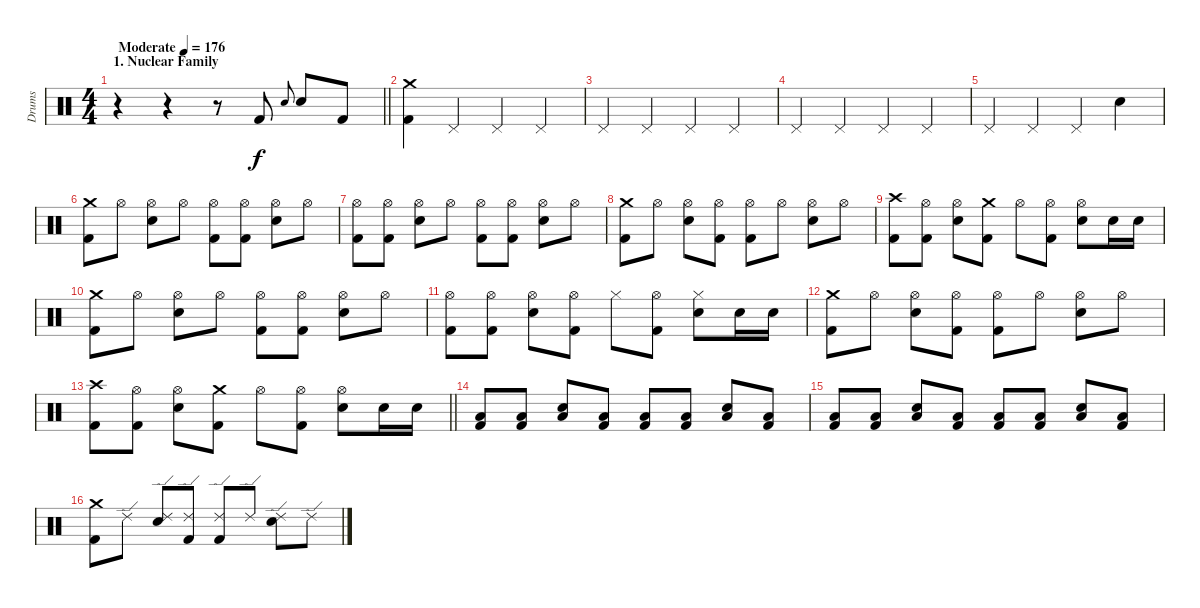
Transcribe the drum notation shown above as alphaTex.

\track ("Drums" "Drums") {instrument percussion}
\staff {score}
\articulation defaults
\ts (4 4)
\section ("" "1. Nuclear Family")
\tempo (176 "Moderate")
\clef neutral
\barLineRight lightlight
\ks c
r.4{dy f} r.4 r.8 "Kick (hit) 2".8 "Electric Snare (hit)".8{gr onbeat} "Electric Snare (hit)".8 "Kick (hit) 2".8 |
("Crash medium (hit)" "Kick (hit) 2").4 "Pedal Hi-Hat (hit)".4 "Pedal Hi-Hat (hit)".4 "Pedal Hi-Hat (hit)".4 |
"Pedal Hi-Hat (hit)".4 "Pedal Hi-Hat (hit)".4 "Pedal Hi-Hat (hit)".4 "Pedal Hi-Hat (hit)".4 |
"Pedal Hi-Hat (hit)".4 "Pedal Hi-Hat (hit)".4 "Pedal Hi-Hat (hit)".4 "Pedal Hi-Hat (hit)".4 |
"Pedal Hi-Hat (hit)".4 "Pedal Hi-Hat (hit)".4 "Pedal Hi-Hat (hit)".4 "Electric Snare (hit)".4 |
("Crash medium (hit)" "Kick (hit) 2").8 "Hi-Hat (open)".8 ("Hi-Hat (open)" "Electric Snare (hit)").8 "Hi-Hat (open)".8 ("Hi-Hat (open)" "Kick (hit) 2").8 ("Hi-Hat (open)" "Kick (hit) 2").8 ("Hi-Hat (open)" "Electric Snare (hit)").8 "Hi-Hat (open)".8 |
("Hi-Hat (open)" "Kick (hit) 2").8 ("Hi-Hat (open)" "Kick (hit) 2").8 ("Hi-Hat (open)" "Electric Snare (hit)").8 "Hi-Hat (open)".8 ("Hi-Hat (open)" "Kick (hit) 2").8 ("Hi-Hat (open)" "Kick (hit) 2").8 ("Hi-Hat (open)" "Electric Snare (hit)").8 "Hi-Hat (open)".8 |
("Crash medium (hit)" "Kick (hit) 2").8 "Hi-Hat (open)".8 ("Hi-Hat (open)" "Electric Snare (hit)").8 ("Hi-Hat (open)" "Kick (hit) 2").8 ("Hi-Hat (open)" "Kick (hit) 2").8 "Hi-Hat (open)".8 ("Hi-Hat (open)" "Electric Snare (hit)").8 "Hi-Hat (open)".8 |
("Crash high (hit)" "Kick (hit) 2").8 ("Hi-Hat (open)" "Kick (hit) 2").8 ("Hi-Hat (open)" "Electric Snare (hit)").8 ("Crash medium (hit)" "Kick (hit) 2").8 "Hi-Hat (open)".8 ("Hi-Hat (open)" "Kick (hit) 2").8 ("Hi-Hat (open)" "Electric Snare (hit)").8 "Electric Snare (hit)".16 "Electric Snare (hit)".16 |
("Crash medium (hit)" "Kick (hit) 2").8 "Hi-Hat (open)".8 ("Hi-Hat (open)" "Electric Snare (hit)").8 "Hi-Hat (open)".8 ("Hi-Hat (open)" "Kick (hit) 2").8 ("Hi-Hat (open)" "Kick (hit) 2").8 ("Hi-Hat (open)" "Electric Snare (hit)").8 "Hi-Hat (open)".8 |
("Hi-Hat (open)" "Kick (hit) 2").8 ("Hi-Hat (open)" "Kick (hit) 2").8 ("Hi-Hat (open)" "Electric Snare (hit)").8 ("Hi-Hat (open)" "Kick (hit) 2").8 "Hi-Hat (closed)".8 ("Hi-Hat (open)" "Kick (hit) 2").8 ("Hi-Hat (closed)" "Electric Snare (hit)").8 "Electric Snare (hit)".16 "Electric Snare (hit)".16 |
("Crash medium (hit)" "Kick (hit) 2").8 "Hi-Hat (open)".8 ("Hi-Hat (open)" "Electric Snare (hit)").8 ("Hi-Hat (open)" "Kick (hit) 2").8 ("Hi-Hat (open)" "Kick (hit) 2").8 "Hi-Hat (open)".8 ("Hi-Hat (open)" "Electric Snare (hit)").8 "Hi-Hat (open)".8 |
\barLineRight lightlight
("Crash high (hit)" "Kick (hit) 2").8 ("Hi-Hat (open)" "Kick (hit) 2").8 ("Hi-Hat (open)" "Electric Snare (hit)").8 ("Crash medium (hit)" "Kick (hit) 2").8 "Hi-Hat (open)".8 ("Hi-Hat (open)" "Kick (hit) 2").8 ("Hi-Hat (open)" "Electric Snare (hit)").8 "Electric Snare (hit)".16 "Electric Snare (hit)".16 |
("Low Floor Tom (hit)" "Kick (hit) 2").8 ("Low Floor Tom (hit)" "Kick (hit) 2").8 ("Electric Snare (hit)" "Low Floor Tom (hit)").8 ("Low Floor Tom (hit)" "Kick (hit) 2").8 ("Low Floor Tom (hit)" "Kick (hit) 2").8 ("Low Floor Tom (hit)" "Kick (hit) 2").8 ("Electric Snare (hit)" "Low Floor Tom (hit)").8 ("Low Floor Tom (hit)" "Kick (hit) 2").8 |
("Low Floor Tom (hit)" "Kick (hit) 2").8 ("Low Floor Tom (hit)" "Kick (hit) 2").8 ("Electric Snare (hit)" "Low Floor Tom (hit)").8 ("Low Floor Tom (hit)" "Kick (hit) 2").8 ("Low Floor Tom (hit)" "Kick (hit) 2").8 ("Low Floor Tom (hit)" "Kick (hit) 2").8 ("Electric Snare (hit)" "Low Floor Tom (hit)").8 ("Low Floor Tom (hit)" "Kick (hit) 2").8 |
("Crash medium (hit)" "Kick (hit) 2").8 "Ride (edge) 2".8 ("Ride (edge) 2" "Electric Snare (hit)").8 ("Ride (edge) 2" "Kick (hit) 2").8 ("Ride (edge) 2" "Kick (hit) 2").8 "Ride (edge) 2".8 ("Ride (edge) 2" "Electric Snare (hit)").8 "Ride (edge) 2".8
